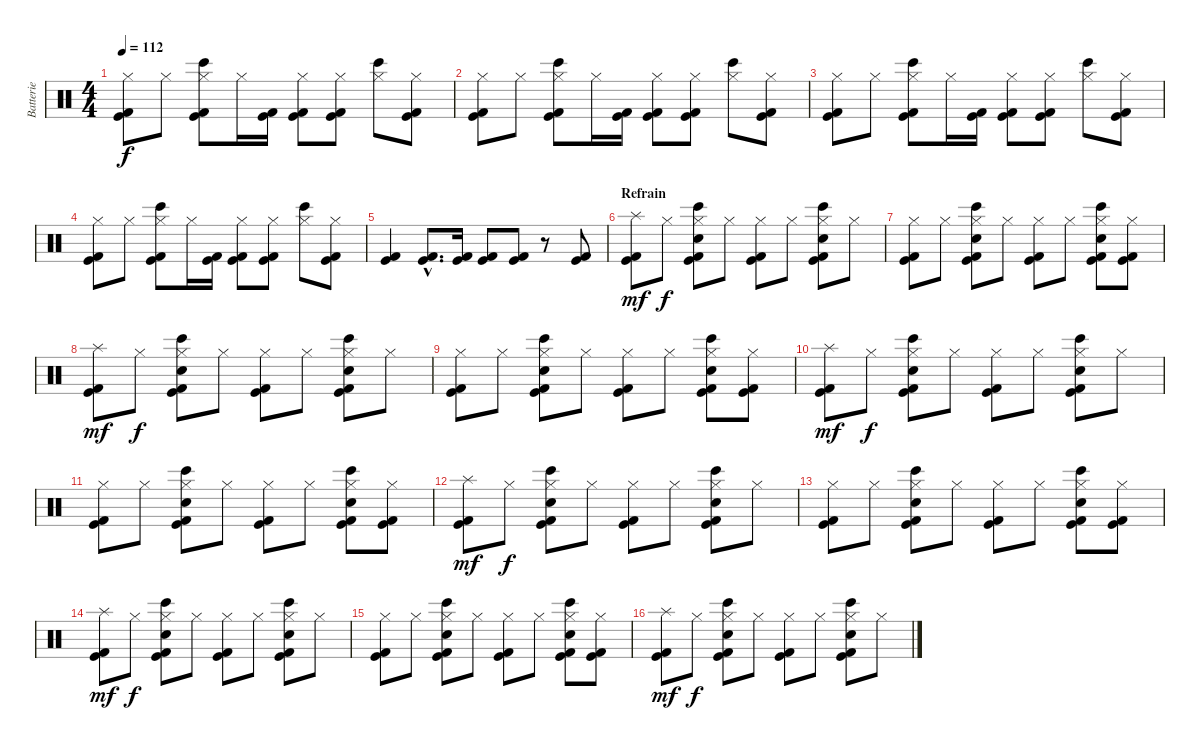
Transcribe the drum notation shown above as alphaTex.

\track ("Batterie" "Batterie") {instrument percussion}
\staff {score}
\articulation defaults
\ts (4 4)
\tempo 112
\clef neutral
\ks c
("Hi-Hat (closed)" "Kick (hit)" "Kick (hit) 2").8{dy f} "Hi-Hat (closed)".8 ("Hi-Hat (closed)" "Bongo High (hit)" "Kick (hit)" "Kick (hit) 2").8 "Hi-Hat (closed)".16 ("Kick (hit)" "Kick (hit) 2").16 ("Hi-Hat (closed)" "Kick (hit)" "Kick (hit) 2").8 ("Hi-Hat (closed)" "Kick (hit)" "Kick (hit) 2").8 ("Hi-Hat (closed)" "Bongo High (hit)").8 ("Hi-Hat (closed)" "Kick (hit)" "Kick (hit) 2").8 |
("Hi-Hat (closed)" "Kick (hit)" "Kick (hit) 2").8 "Hi-Hat (closed)".8 ("Hi-Hat (closed)" "Bongo High (hit)" "Kick (hit)" "Kick (hit) 2").8 "Hi-Hat (closed)".16 ("Kick (hit)" "Kick (hit) 2").16 ("Hi-Hat (closed)" "Kick (hit)" "Kick (hit) 2").8 ("Hi-Hat (closed)" "Kick (hit)" "Kick (hit) 2").8 ("Hi-Hat (closed)" "Bongo High (hit)").8 ("Hi-Hat (closed)" "Kick (hit)" "Kick (hit) 2").8 |
("Hi-Hat (closed)" "Kick (hit)" "Kick (hit) 2").8 "Hi-Hat (closed)".8 ("Hi-Hat (closed)" "Bongo High (hit)" "Kick (hit)" "Kick (hit) 2").8 "Hi-Hat (closed)".16 ("Kick (hit)" "Kick (hit) 2").16 ("Hi-Hat (closed)" "Kick (hit)" "Kick (hit) 2").8 ("Hi-Hat (closed)" "Kick (hit)" "Kick (hit) 2").8 ("Hi-Hat (closed)" "Bongo High (hit)").8 ("Hi-Hat (closed)" "Kick (hit)" "Kick (hit) 2").8 |
("Hi-Hat (closed)" "Kick (hit)" "Kick (hit) 2").8 "Hi-Hat (closed)".8 ("Hi-Hat (closed)" "Bongo High (hit)" "Kick (hit)" "Kick (hit) 2").8 "Hi-Hat (closed)".16 ("Kick (hit)" "Kick (hit) 2").16 ("Hi-Hat (closed)" "Kick (hit)" "Kick (hit) 2").8 ("Hi-Hat (closed)" "Kick (hit)" "Kick (hit) 2").8 ("Hi-Hat (closed)" "Bongo High (hit)").8 ("Hi-Hat (closed)" "Kick (hit)" "Kick (hit) 2").8 |
("Kick (hit)" "Kick (hit) 2").4 ("Kick (hit)"{hac} "Kick (hit) 2"{hac}).8{d} ("Kick (hit)" "Kick (hit) 2").16 ("Kick (hit)" "Kick (hit) 2").8 ("Kick (hit)" "Kick (hit) 2").8 r.8 ("Kick (hit)" "Kick (hit) 2").8 |
\section ("" "Refrain")
("Splash (hit)" "Kick (hit)" "Kick (hit) 2").8{dy mf} "Hi-Hat (closed)".8{dy f} ("Hi-Hat (closed)" "Electric Snare (hit)" "Bongo High (hit)" "Kick (hit)" "Kick (hit) 2").8 "Hi-Hat (closed)".8 ("Hi-Hat (closed)" "Kick (hit)" "Kick (hit) 2").8 "Hi-Hat (closed)".8 ("Hi-Hat (closed)" "Electric Snare (hit)" "Bongo High (hit)" "Kick (hit)" "Kick (hit) 2").8 "Hi-Hat (closed)".8 |
("Hi-Hat (closed)" "Kick (hit)" "Kick (hit) 2").8 "Hi-Hat (closed)".8 ("Hi-Hat (closed)" "Electric Snare (hit)" "Bongo High (hit)" "Kick (hit)" "Kick (hit) 2").8 "Hi-Hat (closed)".8 ("Hi-Hat (closed)" "Kick (hit)" "Kick (hit) 2").8 "Hi-Hat (closed)".8 ("Hi-Hat (closed)" "Electric Snare (hit)" "Bongo High (hit)" "Kick (hit)" "Kick (hit) 2").8 ("Hi-Hat (closed)" "Kick (hit)" "Kick (hit) 2").8 |
("Splash (hit)" "Kick (hit)" "Kick (hit) 2").8{dy mf} "Hi-Hat (closed)".8{dy f} ("Hi-Hat (closed)" "Electric Snare (hit)" "Bongo High (hit)" "Kick (hit)" "Kick (hit) 2").8 "Hi-Hat (closed)".8 ("Hi-Hat (closed)" "Kick (hit)" "Kick (hit) 2").8 "Hi-Hat (closed)".8 ("Hi-Hat (closed)" "Electric Snare (hit)" "Bongo High (hit)" "Kick (hit)" "Kick (hit) 2").8 "Hi-Hat (closed)".8 |
("Hi-Hat (closed)" "Kick (hit)" "Kick (hit) 2").8 "Hi-Hat (closed)".8 ("Hi-Hat (closed)" "Electric Snare (hit)" "Bongo High (hit)" "Kick (hit)" "Kick (hit) 2").8 "Hi-Hat (closed)".8 ("Hi-Hat (closed)" "Kick (hit)" "Kick (hit) 2").8 "Hi-Hat (closed)".8 ("Hi-Hat (closed)" "Electric Snare (hit)" "Bongo High (hit)" "Kick (hit)" "Kick (hit) 2").8 ("Hi-Hat (closed)" "Kick (hit)" "Kick (hit) 2").8 |
("Splash (hit)" "Kick (hit)" "Kick (hit) 2").8{dy mf} "Hi-Hat (closed)".8{dy f} ("Hi-Hat (closed)" "Electric Snare (hit)" "Bongo High (hit)" "Kick (hit)" "Kick (hit) 2").8 "Hi-Hat (closed)".8 ("Hi-Hat (closed)" "Kick (hit)" "Kick (hit) 2").8 "Hi-Hat (closed)".8 ("Hi-Hat (closed)" "Electric Snare (hit)" "Bongo High (hit)" "Kick (hit)" "Kick (hit) 2").8 "Hi-Hat (closed)".8 |
("Hi-Hat (closed)" "Kick (hit)" "Kick (hit) 2").8 "Hi-Hat (closed)".8 ("Hi-Hat (closed)" "Electric Snare (hit)" "Bongo High (hit)" "Kick (hit)" "Kick (hit) 2").8 "Hi-Hat (closed)".8 ("Hi-Hat (closed)" "Kick (hit)" "Kick (hit) 2").8 "Hi-Hat (closed)".8 ("Hi-Hat (closed)" "Electric Snare (hit)" "Bongo High (hit)" "Kick (hit)" "Kick (hit) 2").8 ("Hi-Hat (closed)" "Kick (hit)" "Kick (hit) 2").8 |
("Splash (hit)" "Kick (hit)" "Kick (hit) 2").8{dy mf} "Hi-Hat (closed)".8{dy f} ("Hi-Hat (closed)" "Electric Snare (hit)" "Bongo High (hit)" "Kick (hit)" "Kick (hit) 2").8 "Hi-Hat (closed)".8 ("Hi-Hat (closed)" "Kick (hit)" "Kick (hit) 2").8 "Hi-Hat (closed)".8 ("Hi-Hat (closed)" "Electric Snare (hit)" "Bongo High (hit)" "Kick (hit)" "Kick (hit) 2").8 "Hi-Hat (closed)".8 |
("Hi-Hat (closed)" "Kick (hit)" "Kick (hit) 2").8 "Hi-Hat (closed)".8 ("Hi-Hat (closed)" "Electric Snare (hit)" "Bongo High (hit)" "Kick (hit)" "Kick (hit) 2").8 "Hi-Hat (closed)".8 ("Hi-Hat (closed)" "Kick (hit)" "Kick (hit) 2").8 "Hi-Hat (closed)".8 ("Hi-Hat (closed)" "Electric Snare (hit)" "Bongo High (hit)" "Kick (hit)" "Kick (hit) 2").8 ("Hi-Hat (closed)" "Kick (hit)" "Kick (hit) 2").8 |
("Splash (hit)" "Kick (hit)" "Kick (hit) 2").8{dy mf} "Hi-Hat (closed)".8{dy f} ("Hi-Hat (closed)" "Electric Snare (hit)" "Bongo High (hit)" "Kick (hit)" "Kick (hit) 2").8 "Hi-Hat (closed)".8 ("Hi-Hat (closed)" "Kick (hit)" "Kick (hit) 2").8 "Hi-Hat (closed)".8 ("Hi-Hat (closed)" "Electric Snare (hit)" "Bongo High (hit)" "Kick (hit)" "Kick (hit) 2").8 "Hi-Hat (closed)".8 |
("Hi-Hat (closed)" "Kick (hit)" "Kick (hit) 2").8 "Hi-Hat (closed)".8 ("Hi-Hat (closed)" "Electric Snare (hit)" "Bongo High (hit)" "Kick (hit)" "Kick (hit) 2").8 "Hi-Hat (closed)".8 ("Hi-Hat (closed)" "Kick (hit)" "Kick (hit) 2").8 "Hi-Hat (closed)".8 ("Hi-Hat (closed)" "Electric Snare (hit)" "Bongo High (hit)" "Kick (hit)" "Kick (hit) 2").8 ("Hi-Hat (closed)" "Kick (hit)" "Kick (hit) 2").8 |
("Splash (hit)" "Kick (hit)" "Kick (hit) 2").8{dy mf} "Hi-Hat (closed)".8{dy f} ("Hi-Hat (closed)" "Electric Snare (hit)" "Bongo High (hit)" "Kick (hit)" "Kick (hit) 2").8 "Hi-Hat (closed)".8 ("Hi-Hat (closed)" "Kick (hit)" "Kick (hit) 2").8 "Hi-Hat (closed)".8 ("Hi-Hat (closed)" "Electric Snare (hit)" "Bongo High (hit)" "Kick (hit)" "Kick (hit) 2").8 "Hi-Hat (closed)".8
